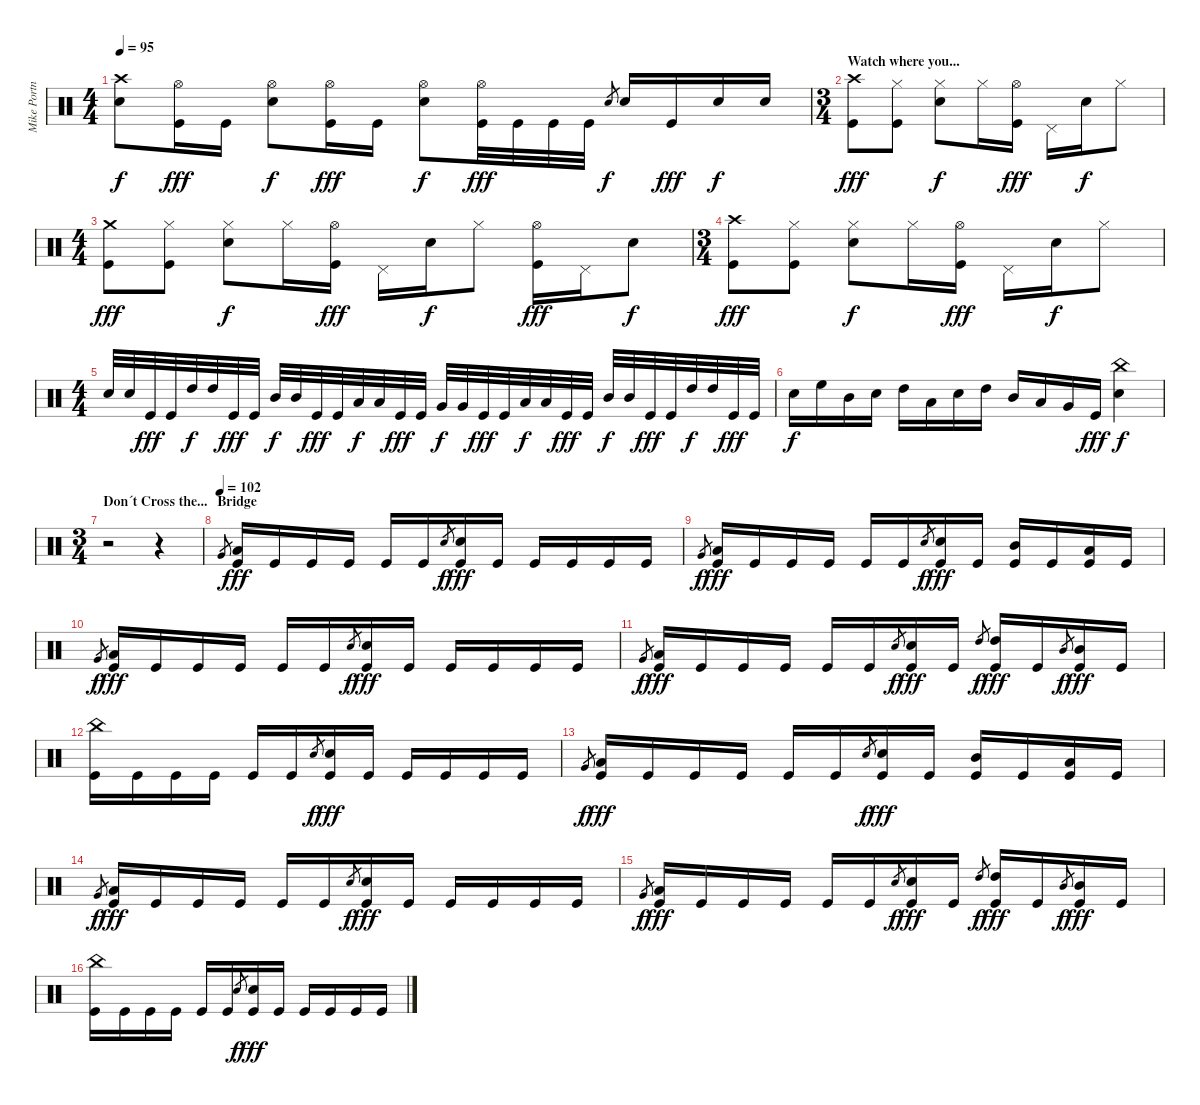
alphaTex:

\track ("Mike Portnoy" "Mike Portn") {instrument percussion}
\staff {score}
\articulation defaults
\ts (4 4)
\tempo 95
\clef neutral
\ks c
("Crash high (hit)" "Electric Snare (hit)").8{dy f} ("Hi-Hat (open)" "Kick (hit)").16{dy fff} "Kick (hit)".16 ("Hi-Hat (open)" "Electric Snare (hit)").8{dy f} ("Hi-Hat (open)" "Kick (hit)").16{dy fff} "Kick (hit)".16 ("Hi-Hat (open)" "Electric Snare (hit)").8{dy f} ("Hi-Hat (open)" "Kick (hit)").32{dy fff} "Kick (hit)".32 "Kick (hit)".32 "Kick (hit)".32 "Electric Snare (hit)".8{gr dy f} "Electric Snare (hit)".16 "Kick (hit)".16{dy fff} "Electric Snare (hit)".16{dy f} "Electric Snare (hit)".16 |
\ts (3 4)
\section ("" "Watch where you...")
("Crash high (hit)" "Kick (hit)").8{dy fff} ("Hi-Hat (closed)" "Kick (hit)").8 ("Hi-Hat (closed)" "Electric Snare (hit)").8{dy f} "Hi-Hat (closed)".16 ("Hi-Hat (open)" "Kick (hit)").16{dy fff} "Pedal Hi-Hat (hit)".16 "Electric Snare (hit)".16{dy f} "Hi-Hat (closed)".8 |
\ts (4 4)
("Crash medium (hit)" "Kick (hit)").8{dy fff} ("Hi-Hat (closed)" "Kick (hit)").8 ("Hi-Hat (closed)" "Electric Snare (hit)").8{dy f} "Hi-Hat (closed)".16 ("Hi-Hat (open)" "Kick (hit)").16{dy fff} "Pedal Hi-Hat (hit)".16 "Electric Snare (hit)".16{dy f} "Hi-Hat (closed)".8 ("Hi-Hat (open)" "Kick (hit)").16{dy fff} "Pedal Hi-Hat (hit)".16 "Electric Snare (hit)".8{dy f} |
\ts (3 4)
("Crash high (hit)" "Kick (hit)").8{dy fff} ("Hi-Hat (closed)" "Kick (hit)").8 ("Hi-Hat (closed)" "Electric Snare (hit)").8{dy f} "Hi-Hat (closed)".16 ("Hi-Hat (open)" "Kick (hit)").16{dy fff} "Pedal Hi-Hat (hit)".16 "Electric Snare (hit)".16{dy f} "Hi-Hat (closed)".8 |
\ts (4 4)
"Electric Snare (hit)".32 "Electric Snare (hit)".32 "Kick (hit)".32{dy fff} "Kick (hit)".32 "High Tom (hit)".32{dy f} "High Tom (hit)".32 "Kick (hit)".32{dy fff} "Kick (hit)".32 "Mid Tom (hit)".32{dy f} "Mid Tom (hit)".32 "Kick (hit)".32{dy fff} "Kick (hit)".32 "Low Tom (hit)".32{dy f} "Low Tom (hit)".32 "Kick (hit)".32{dy fff} "Kick (hit)".32 "Very Low Tom (hit)".32{dy f} "Very Low Tom (hit)".32 "Kick (hit)".32{dy fff} "Kick (hit)".32 "Low Tom (hit)".32{dy f} "Low Tom (hit)".32 "Kick (hit)".32{dy fff} "Kick (hit)".32 "Mid Tom (hit)".32{dy f} "Mid Tom (hit)".32 "Kick (hit)".32{dy fff} "Kick (hit)".32 "High Tom (hit)".32{dy f} "High Tom (hit)".32 "Kick (hit)".32{dy fff} "Kick (hit)".32 |
"Electric Snare (hit)".16{dy f} "High Floor Tom (hit)".16 "Mid Tom (hit)".16 "Electric Snare (hit)".16 "High Tom (hit)".16 "Low Tom (hit)".16 "Electric Snare (hit)".16 "High Tom (hit)".16 "Mid Tom (hit)".16 "Low Tom (hit)".16 "Very Low Tom (hit)".16 "Kick (hit)".16{dy fff} ("China (hit)" "Electric Snare (hit)").4{dy f} |
\ts (3 4)
\section ("" "Don´t Cross the...")
r.2 r.4 |
\section ("" "Bridge")
\tempo (102)
"Very Low Tom (hit)".8{gr} ("Low Tom (hit)" "Kick (hit)").16{dy fff} "Kick (hit)".16 "Kick (hit)".16 "Kick (hit)".16 "Kick (hit)".16 "Kick (hit)".16 "Electric Snare (hit)".8{gr dy f} ("Electric Snare (hit)" "Kick (hit)").16{dy fff} "Kick (hit)".16 "Kick (hit)".16 "Kick (hit)".16 "Kick (hit)".16 "Kick (hit)".16 |
"Very Low Tom (hit)".8{gr dy f} ("Low Tom (hit)" "Kick (hit)").16{dy fff} "Kick (hit)".16 "Kick (hit)".16 "Kick (hit)".16 "Kick (hit)".16 "Kick (hit)".16 "Electric Snare (hit)".8{gr dy f} ("Electric Snare (hit)" "Kick (hit)").16{dy fff} "Kick (hit)".16 ("Mid Tom (hit)" "Kick (hit)").16 "Kick (hit)".16 ("Low Tom (hit)" "Kick (hit)").16 "Kick (hit)".16 |
"Very Low Tom (hit)".8{gr dy f} ("Low Tom (hit)" "Kick (hit)").16{dy fff} "Kick (hit)".16 "Kick (hit)".16 "Kick (hit)".16 "Kick (hit)".16 "Kick (hit)".16 "Electric Snare (hit)".8{gr dy f} ("Electric Snare (hit)" "Kick (hit)").16{dy fff} "Kick (hit)".16 "Kick (hit)".16 "Kick (hit)".16 "Kick (hit)".16 "Kick (hit)".16 |
"Very Low Tom (hit)".8{gr dy f} ("Low Tom (hit)" "Kick (hit)").16{dy fff} "Kick (hit)".16 "Kick (hit)".16 "Kick (hit)".16 "Kick (hit)".16 "Kick (hit)".16 "Electric Snare (hit)".8{gr dy f} ("Electric Snare (hit)" "Kick (hit)").16{dy fff} "Kick (hit)".16 "High Tom (hit)".8{gr dy f} ("High Tom (hit)" "Kick (hit)").16{dy fff} "Kick (hit)".16 "Mid Tom (hit)".8{gr dy f} ("Mid Tom (hit)" "Kick (hit)").16{dy fff} "Kick (hit)".16 |
("China (hit)" "Kick (hit)").16 "Kick (hit)".16 "Kick (hit)".16 "Kick (hit)".16 "Kick (hit)".16 "Kick (hit)".16 "Electric Snare (hit)".8{gr dy f} ("Electric Snare (hit)" "Kick (hit)").16{dy fff} "Kick (hit)".16 "Kick (hit)".16 "Kick (hit)".16 "Kick (hit)".16 "Kick (hit)".16 |
"Very Low Tom (hit)".8{gr dy f} ("Low Tom (hit)" "Kick (hit)").16{dy fff} "Kick (hit)".16 "Kick (hit)".16 "Kick (hit)".16 "Kick (hit)".16 "Kick (hit)".16 "Electric Snare (hit)".8{gr dy f} ("Electric Snare (hit)" "Kick (hit)").16{dy fff} "Kick (hit)".16 ("Mid Tom (hit)" "Kick (hit)").16 "Kick (hit)".16 ("Low Tom (hit)" "Kick (hit)").16 "Kick (hit)".16 |
"Very Low Tom (hit)".8{gr dy f} ("Low Tom (hit)" "Kick (hit)").16{dy fff} "Kick (hit)".16 "Kick (hit)".16 "Kick (hit)".16 "Kick (hit)".16 "Kick (hit)".16 "Electric Snare (hit)".8{gr dy f} ("Electric Snare (hit)" "Kick (hit)").16{dy fff} "Kick (hit)".16 "Kick (hit)".16 "Kick (hit)".16 "Kick (hit)".16 "Kick (hit)".16 |
"Very Low Tom (hit)".8{gr dy f} ("Low Tom (hit)" "Kick (hit)").16{dy fff} "Kick (hit)".16 "Kick (hit)".16 "Kick (hit)".16 "Kick (hit)".16 "Kick (hit)".16 "Electric Snare (hit)".8{gr dy f} ("Electric Snare (hit)" "Kick (hit)").16{dy fff} "Kick (hit)".16 "High Tom (hit)".8{gr dy f} ("High Tom (hit)" "Kick (hit)").16{dy fff} "Kick (hit)".16 "Mid Tom (hit)".8{gr dy f} ("Mid Tom (hit)" "Kick (hit)").16{dy fff} "Kick (hit)".16 |
("China (hit)" "Kick (hit)").16 "Kick (hit)".16 "Kick (hit)".16 "Kick (hit)".16 "Kick (hit)".16 "Kick (hit)".16 "Electric Snare (hit)".8{gr dy f} ("Electric Snare (hit)" "Kick (hit)").16{dy fff} "Kick (hit)".16 "Kick (hit)".16 "Kick (hit)".16 "Kick (hit)".16 "Kick (hit)".16
